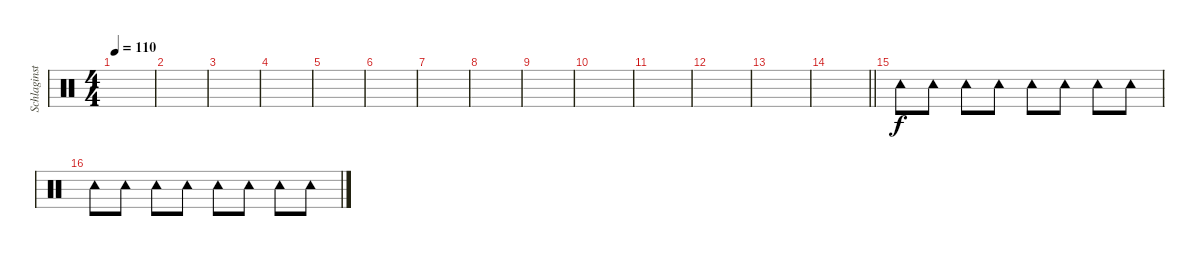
\track ("Schlaginstrumente - Auswahl" "Schlaginst") {instrument percussion}
\staff {score}
\articulation defaults
\ts (4 4)
\tempo 110
\clef neutral
\ks c
|
|
|
|
|
|
|
|
|
|
|
|
|
\barLineRight lightlight
|
"Tambourine (hit)".8{balance 16} "Tambourine (hit)".8 "Tambourine (hit)".8 "Tambourine (hit)".8 "Tambourine (hit)".8 "Tambourine (hit)".8 "Tambourine (hit)".8 "Tambourine (hit)".8 |
"Tambourine (hit)".8{balance 16} "Tambourine (hit)".8 "Tambourine (hit)".8 "Tambourine (hit)".8 "Tambourine (hit)".8 "Tambourine (hit)".8 "Tambourine (hit)".8 "Tambourine (hit)".8
